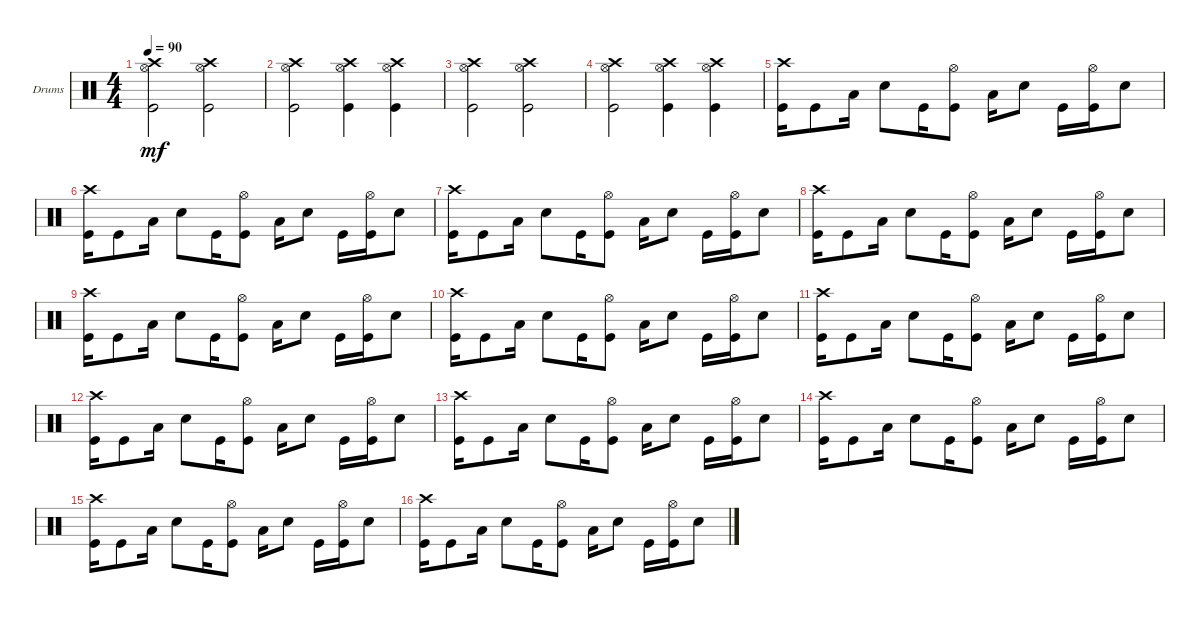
\bracketExtendMode groupsimilarinstruments
\firstSystemTrackNameOrientation horizontal
\otherSystemsTrackNameOrientation horizontal
\track ("Drumkit" "Drums") {instrument percussion}
\staff {score}
\articulation defaults
\ts (4 4)
\tempo 90
\clef neutral
\scale
0.333333
\ks c
("Hi-Hat (open)" "Crash high (hit)" "Kick (hit)").2{dy mf} ("Hi-Hat (open)" "Crash high (hit)" "Kick (hit)").2 |
\scale
0.333333 ("Hi-Hat (open)" "Crash high (hit)" "Kick (hit)").2 ("Hi-Hat (open)" "Crash high (hit)" "Kick (hit)").4 ("Hi-Hat (open)" "Crash high (hit)" "Kick (hit)").4 |
\scale
0.333333 ("Hi-Hat (open)" "Crash high (hit)" "Kick (hit)").2 ("Hi-Hat (open)" "Crash high (hit)" "Kick (hit)").2 |
\scale
0.333333 ("Hi-Hat (open)" "Crash high (hit)" "Kick (hit)").2 ("Hi-Hat (open)" "Crash high (hit)" "Kick (hit)").4 ("Hi-Hat (open)" "Crash high (hit)" "Kick (hit)").4 |
\scale
0.333333 ("Kick (hit)" "Crash high (hit)").16 "Kick (hit)".8 "Low Tom (hit)".16 "Snare (hit) 2".8 "Kick (hit)".16 ("Kick (hit)" "Hi-Hat (open)").8 "Low Tom (hit)".16 "Snare (hit) 2".8 "Kick (hit)".16 ("Kick (hit)" "Hi-Hat (open)").16 "Snare (hit) 2".8 |
\scale
0.333333 ("Kick (hit)" "Crash high (hit)").16 "Kick (hit)".8 "Low Tom (hit)".16 "Snare (hit) 2".8 "Kick (hit)".16 ("Kick (hit)" "Hi-Hat (open)").8 "Low Tom (hit)".16 "Snare (hit) 2".8 "Kick (hit)".16 ("Kick (hit)" "Hi-Hat (open)").16 "Snare (hit) 2".8 |
\scale
0.333333 ("Kick (hit)" "Crash high (hit)").16 "Kick (hit)".8 "Low Tom (hit)".16 "Snare (hit) 2".8 "Kick (hit)".16 ("Kick (hit)" "Hi-Hat (open)").8 "Low Tom (hit)".16 "Snare (hit) 2".8 "Kick (hit)".16 ("Kick (hit)" "Hi-Hat (open)").16 "Snare (hit) 2".8 |
\scale
0.333333 ("Kick (hit)" "Crash high (hit)").16 "Kick (hit)".8 "Low Tom (hit)".16 "Snare (hit) 2".8 "Kick (hit)".16 ("Kick (hit)" "Hi-Hat (open)").8 "Low Tom (hit)".16 "Snare (hit) 2".8 "Kick (hit)".16 ("Kick (hit)" "Hi-Hat (open)").16 "Snare (hit) 2".8 |
\scale
0.333333 ("Kick (hit)" "Crash high (hit)").16 "Kick (hit)".8 "Low Tom (hit)".16 "Snare (hit) 2".8 "Kick (hit)".16 ("Kick (hit)" "Hi-Hat (open)").8 "Low Tom (hit)".16 "Snare (hit) 2".8 "Kick (hit)".16 ("Kick (hit)" "Hi-Hat (open)").16 "Snare (hit) 2".8 |
\scale
0.333333 ("Kick (hit)" "Crash high (hit)").16 "Kick (hit)".8 "Low Tom (hit)".16 "Snare (hit) 2".8 "Kick (hit)".16 ("Kick (hit)" "Hi-Hat (open)").8 "Low Tom (hit)".16 "Snare (hit) 2".8 "Kick (hit)".16 ("Kick (hit)" "Hi-Hat (open)").16 "Snare (hit) 2".8 |
("Kick (hit)" "Crash high (hit)").16 "Kick (hit)".8 "Low Tom (hit)".16 "Snare (hit) 2".8 "Kick (hit)".16 ("Kick (hit)" "Hi-Hat (open)").8 "Low Tom (hit)".16 "Snare (hit) 2".8 "Kick (hit)".16 ("Kick (hit)" "Hi-Hat (open)").16 "Snare (hit) 2".8 |
("Kick (hit)" "Crash high (hit)").16 "Kick (hit)".8 "Low Tom (hit)".16 "Snare (hit) 2".8 "Kick (hit)".16 ("Kick (hit)" "Hi-Hat (open)").8 "Low Tom (hit)".16 "Snare (hit) 2".8 "Kick (hit)".16 ("Kick (hit)" "Hi-Hat (open)").16 "Snare (hit) 2".8 |
("Kick (hit)" "Crash high (hit)").16 "Kick (hit)".8 "Low Tom (hit)".16 "Snare (hit) 2".8 "Kick (hit)".16 ("Kick (hit)" "Hi-Hat (open)").8 "Low Tom (hit)".16 "Snare (hit) 2".8 "Kick (hit)".16 ("Kick (hit)" "Hi-Hat (open)").16 "Snare (hit) 2".8 |
("Kick (hit)" "Crash high (hit)").16 "Kick (hit)".8 "Low Tom (hit)".16 "Snare (hit) 2".8 "Kick (hit)".16 ("Kick (hit)" "Hi-Hat (open)").8 "Low Tom (hit)".16 "Snare (hit) 2".8 "Kick (hit)".16 ("Kick (hit)" "Hi-Hat (open)").16 "Snare (hit) 2".8 |
("Kick (hit)" "Crash high (hit)").16 "Kick (hit)".8 "Low Tom (hit)".16 "Snare (hit) 2".8 "Kick (hit)".16 ("Kick (hit)" "Hi-Hat (open)").8 "Low Tom (hit)".16 "Snare (hit) 2".8 "Kick (hit)".16 ("Kick (hit)" "Hi-Hat (open)").16 "Snare (hit) 2".8 |
("Kick (hit)" "Crash high (hit)").16 "Kick (hit)".8 "Low Tom (hit)".16 "Snare (hit) 2".8 "Kick (hit)".16 ("Kick (hit)" "Hi-Hat (open)").8 "Low Tom (hit)".16 "Snare (hit) 2".8 "Kick (hit)".16 ("Kick (hit)" "Hi-Hat (open)").16 "Snare (hit) 2".8
